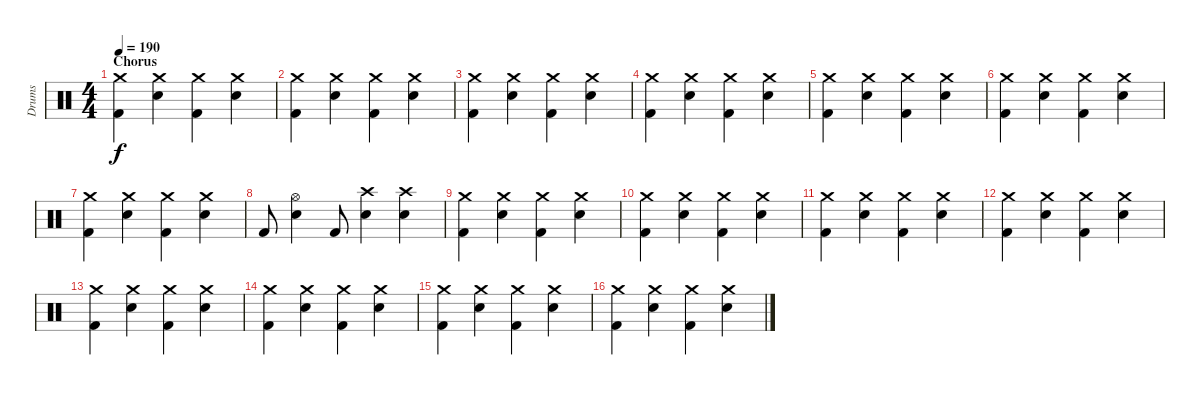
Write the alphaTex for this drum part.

\track ("Drums" "Drums") {instrument percussion}
\staff {score}
\articulation defaults
\ts (4 4)
\section ("" "Chorus")
\tempo 190
\clef neutral
\ks c
("Crash medium (hit)" "Kick (hit) 2").4{dy f} ("Crash medium (hit)" "Electric Snare (hit)").4 ("Crash medium (hit)" "Kick (hit) 2").4 ("Crash medium (hit)" "Electric Snare (hit)").4 |
("Crash medium (hit)" "Kick (hit) 2").4 ("Crash medium (hit)" "Electric Snare (hit)").4 ("Crash medium (hit)" "Kick (hit) 2").4 ("Crash medium (hit)" "Electric Snare (hit)").4 |
("Crash medium (hit)" "Kick (hit) 2").4 ("Crash medium (hit)" "Electric Snare (hit)").4 ("Crash medium (hit)" "Kick (hit) 2").4 ("Crash medium (hit)" "Electric Snare (hit)").4 |
("Crash medium (hit)" "Kick (hit) 2").4 ("Crash medium (hit)" "Electric Snare (hit)").4 ("Crash medium (hit)" "Kick (hit) 2").4 ("Crash medium (hit)" "Electric Snare (hit)").4 |
("Crash medium (hit)" "Kick (hit) 2").4 ("Crash medium (hit)" "Electric Snare (hit)").4 ("Crash medium (hit)" "Kick (hit) 2").4 ("Crash medium (hit)" "Electric Snare (hit)").4 |
("Crash medium (hit)" "Kick (hit) 2").4 ("Crash medium (hit)" "Electric Snare (hit)").4 ("Crash medium (hit)" "Kick (hit) 2").4 ("Crash medium (hit)" "Electric Snare (hit)").4 |
("Crash medium (hit)" "Kick (hit) 2").4 ("Crash medium (hit)" "Electric Snare (hit)").4 ("Crash medium (hit)" "Kick (hit) 2").4 ("Crash medium (hit)" "Electric Snare (hit)").4 |
"Kick (hit) 2".8 ("Hi-Hat (open)" "Electric Snare (hit)").4 "Kick (hit) 2".8 ("Crash high (hit)" "Electric Snare (hit)").4 ("Crash high (hit)" "Electric Snare (hit)").4 |
("Crash medium (hit)" "Kick (hit) 2").4 ("Crash medium (hit)" "Electric Snare (hit)").4 ("Crash medium (hit)" "Kick (hit) 2").4 ("Crash medium (hit)" "Electric Snare (hit)").4 |
("Crash medium (hit)" "Kick (hit) 2").4 ("Crash medium (hit)" "Electric Snare (hit)").4 ("Crash medium (hit)" "Kick (hit) 2").4 ("Crash medium (hit)" "Electric Snare (hit)").4 |
("Crash medium (hit)" "Kick (hit) 2").4 ("Crash medium (hit)" "Electric Snare (hit)").4 ("Crash medium (hit)" "Kick (hit) 2").4 ("Crash medium (hit)" "Electric Snare (hit)").4 |
("Crash medium (hit)" "Kick (hit) 2").4 ("Crash medium (hit)" "Electric Snare (hit)").4 ("Crash medium (hit)" "Kick (hit) 2").4 ("Crash medium (hit)" "Electric Snare (hit)").4 |
("Crash medium (hit)" "Kick (hit) 2").4 ("Crash medium (hit)" "Electric Snare (hit)").4 ("Crash medium (hit)" "Kick (hit) 2").4 ("Crash medium (hit)" "Electric Snare (hit)").4 |
("Crash medium (hit)" "Kick (hit) 2").4 ("Crash medium (hit)" "Electric Snare (hit)").4 ("Crash medium (hit)" "Kick (hit) 2").4 ("Crash medium (hit)" "Electric Snare (hit)").4 |
("Crash medium (hit)" "Kick (hit) 2").4 ("Crash medium (hit)" "Electric Snare (hit)").4 ("Crash medium (hit)" "Kick (hit) 2").4 ("Crash medium (hit)" "Electric Snare (hit)").4 |
("Crash medium (hit)" "Kick (hit) 2").4 ("Crash medium (hit)" "Electric Snare (hit)").4 ("Crash medium (hit)" "Kick (hit) 2").4 ("Crash medium (hit)" "Electric Snare (hit)").4
